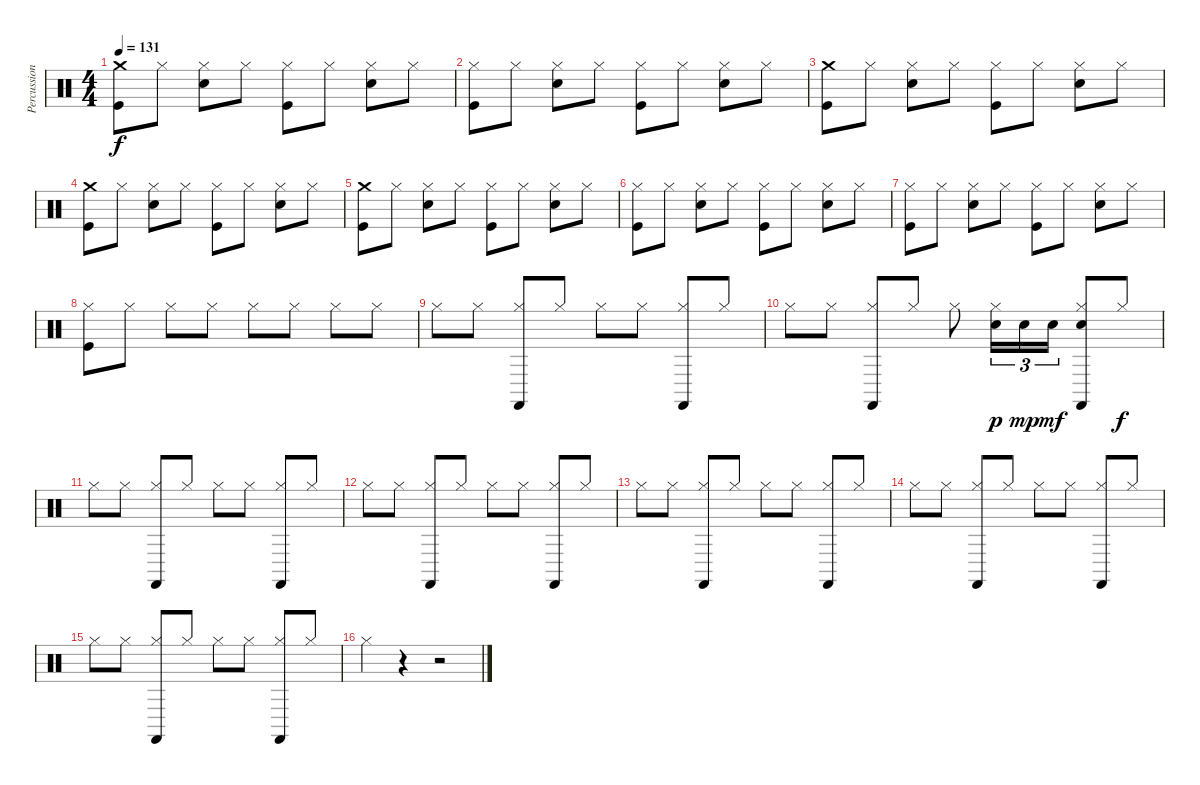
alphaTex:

\track ("Percussions" "Percussion") {instrument percussion}
\staff {score}
\articulation defaults
\ts (4 4)
\tempo 131
\clef neutral
\ks c
("Crash medium (hit)" "Kick (hit)").8{dy f} "Hi-Hat (closed)".8 ("Hi-Hat (closed)" "Snare (hit) 2").8 "Hi-Hat (closed)".8 ("Hi-Hat (closed)" "Kick (hit)").8 "Hi-Hat (closed)".8 ("Hi-Hat (closed)" "Snare (hit) 2").8 "Hi-Hat (closed)".8 |
("Hi-Hat (closed)" "Kick (hit)").8 "Hi-Hat (closed)".8 ("Hi-Hat (closed)" "Snare (hit) 2").8 "Hi-Hat (closed)".8 ("Hi-Hat (closed)" "Kick (hit)").8 "Hi-Hat (closed)".8 ("Hi-Hat (closed)" "Snare (hit) 2").8 "Hi-Hat (closed)".8 |
("Crash medium (hit)" "Kick (hit)").8 "Hi-Hat (closed)".8 ("Hi-Hat (closed)" "Snare (hit) 2").8 "Hi-Hat (closed)".8 ("Hi-Hat (closed)" "Kick (hit)").8 "Hi-Hat (closed)".8 ("Hi-Hat (closed)" "Snare (hit) 2").8 "Hi-Hat (closed)".8 |
("Crash medium (hit)" "Kick (hit)").8 "Hi-Hat (closed)".8 ("Hi-Hat (closed)" "Snare (hit) 2").8 "Hi-Hat (closed)".8 ("Hi-Hat (closed)" "Kick (hit)").8 "Hi-Hat (closed)".8 ("Hi-Hat (closed)" "Snare (hit) 2").8 "Hi-Hat (closed)".8 |
("Crash medium (hit)" "Kick (hit)").8 "Hi-Hat (closed)".8 ("Hi-Hat (closed)" "Snare (hit) 2").8 "Hi-Hat (closed)".8 ("Hi-Hat (closed)" "Kick (hit)").8 "Hi-Hat (closed)".8 ("Hi-Hat (closed)" "Snare (hit) 2").8 "Hi-Hat (closed)".8 |
("Hi-Hat (closed)" "Kick (hit)").8 "Hi-Hat (closed)".8 ("Hi-Hat (closed)" "Snare (hit) 2").8 "Hi-Hat (closed)".8 ("Hi-Hat (closed)" "Kick (hit)").8 "Hi-Hat (closed)".8 ("Hi-Hat (closed)" "Snare (hit) 2").8 "Hi-Hat (closed)".8 |
("Hi-Hat (closed)" "Kick (hit)").8 "Hi-Hat (closed)".8 ("Hi-Hat (closed)" "Snare (hit) 2").8 "Hi-Hat (closed)".8 ("Hi-Hat (closed)" "Kick (hit)").8 "Hi-Hat (closed)".8 ("Hi-Hat (closed)" "Snare (hit) 2").8 "Hi-Hat (closed)".8 |
("Hi-Hat (closed)" "Kick (hit)").8 "Hi-Hat (closed)".8 "Hi-Hat (closed)".8 "Hi-Hat (closed)".8 "Hi-Hat (closed)".8 "Hi-Hat (closed)".8 "Hi-Hat (closed)".8 "Hi-Hat (closed)".8 |
"Hi-Hat (closed)".8 "Hi-Hat (closed)".8 ("Hi-Hat (closed)" "Castanets (hit)").8 "Hi-Hat (closed)".8 "Hi-Hat (closed)".8 "Hi-Hat (closed)".8 ("Hi-Hat (closed)" "Castanets (hit)").8 "Hi-Hat (closed)".8 |
"Hi-Hat (closed)".8 "Hi-Hat (closed)".8 ("Hi-Hat (closed)" "Castanets (hit)").8 "Hi-Hat (closed)".8 "Hi-Hat (closed)".8 ("Hi-Hat (closed)" "Snare (hit) 2").16{tu (3 2) dy p} "Snare (hit) 2".16{tu (3 2) dy mp} "Snare (hit) 2".16{tu (3 2) dy mf} ("Hi-Hat (closed)" "Castanets (hit)" "Snare (hit) 2").8 "Hi-Hat (closed)".8{dy f} |
"Hi-Hat (closed)".8 "Hi-Hat (closed)".8 ("Hi-Hat (closed)" "Castanets (hit)").8 "Hi-Hat (closed)".8 "Hi-Hat (closed)".8 "Hi-Hat (closed)".8 ("Hi-Hat (closed)" "Castanets (hit)").8 "Hi-Hat (closed)".8 |
"Hi-Hat (closed)".8 "Hi-Hat (closed)".8 ("Hi-Hat (closed)" "Castanets (hit)").8 "Hi-Hat (closed)".8 "Hi-Hat (closed)".8 "Hi-Hat (closed)".8 ("Hi-Hat (closed)" "Castanets (hit)").8 "Hi-Hat (closed)".8 |
"Hi-Hat (closed)".8 "Hi-Hat (closed)".8 ("Hi-Hat (closed)" "Castanets (hit)").8 "Hi-Hat (closed)".8 "Hi-Hat (closed)".8 "Hi-Hat (closed)".8 ("Hi-Hat (closed)" "Castanets (hit)").8 "Hi-Hat (closed)".8 |
"Hi-Hat (closed)".8 "Hi-Hat (closed)".8 ("Hi-Hat (closed)" "Castanets (hit)").8 "Hi-Hat (closed)".8 "Hi-Hat (closed)".8 "Hi-Hat (closed)".8 ("Hi-Hat (closed)" "Castanets (hit)").8 "Hi-Hat (closed)".8 |
"Hi-Hat (closed)".8 "Hi-Hat (closed)".8 ("Hi-Hat (closed)" "Castanets (hit)").8 "Hi-Hat (closed)".8 "Hi-Hat (closed)".8 "Hi-Hat (closed)".8 ("Hi-Hat (closed)" "Castanets (hit)").8 "Hi-Hat (closed)".8 |
"Hi-Hat (closed)".4 r.4 r.2
